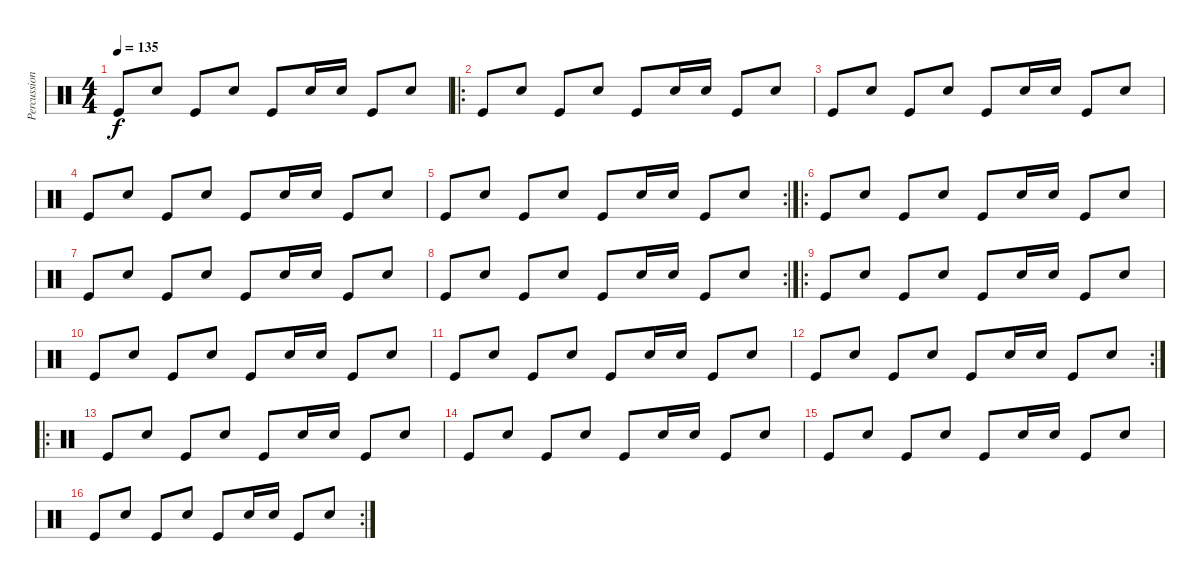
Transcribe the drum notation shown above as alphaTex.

\track ("Percussions" "Percussion") {instrument percussion}
\staff {score}
\articulation defaults
\ts (4 4)
\tempo 135
\clef neutral
\ks c "Kick (hit)".8{dy f} "Snare (hit) 2".8 "Kick (hit)".8 "Snare (hit) 2".8 "Kick (hit)".8 "Snare (hit) 2".16 "Snare (hit) 2".16 "Kick (hit)".8 "Snare (hit) 2".8
|
\ro "Kick (hit)".8 "Snare (hit) 2".8 "Kick (hit)".8 "Snare (hit) 2".8 "Kick (hit)".8 "Snare (hit) 2".16 "Snare (hit) 2".16 "Kick (hit)".8 "Snare (hit) 2".8
|
"Kick (hit)".8 "Snare (hit) 2".8 "Kick (hit)".8 "Snare (hit) 2".8 "Kick (hit)".8 "Snare (hit) 2".16 "Snare (hit) 2".16 "Kick (hit)".8 "Snare (hit) 2".8 |
"Kick (hit)".8 "Snare (hit) 2".8 "Kick (hit)".8 "Snare (hit) 2".8 "Kick (hit)".8 "Snare (hit) 2".16 "Snare (hit) 2".16 "Kick (hit)".8 "Snare (hit) 2".8 |
\rc 2 "Kick (hit)".8 "Snare (hit) 2".8 "Kick (hit)".8 "Snare (hit) 2".8 "Kick (hit)".8 "Snare (hit) 2".16 "Snare (hit) 2".16 "Kick (hit)".8 "Snare (hit) 2".8
|
\ro "Kick (hit)".8 "Snare (hit) 2".8 "Kick (hit)".8 "Snare (hit) 2".8 "Kick (hit)".8 "Snare (hit) 2".16 "Snare (hit) 2".16 "Kick (hit)".8 "Snare (hit) 2".8
|
"Kick (hit)".8 "Snare (hit) 2".8 "Kick (hit)".8 "Snare (hit) 2".8 "Kick (hit)".8 "Snare (hit) 2".16 "Snare (hit) 2".16 "Kick (hit)".8 "Snare (hit) 2".8 |
\rc 2 "Kick (hit)".8 "Snare (hit) 2".8 "Kick (hit)".8 "Snare (hit) 2".8 "Kick (hit)".8 "Snare (hit) 2".16 "Snare (hit) 2".16 "Kick (hit)".8 "Snare (hit) 2".8
|
\ro "Kick (hit)".8 "Snare (hit) 2".8 "Kick (hit)".8 "Snare (hit) 2".8 "Kick (hit)".8 "Snare (hit) 2".16 "Snare (hit) 2".16 "Kick (hit)".8 "Snare (hit) 2".8
|
"Kick (hit)".8 "Snare (hit) 2".8 "Kick (hit)".8 "Snare (hit) 2".8 "Kick (hit)".8 "Snare (hit) 2".16 "Snare (hit) 2".16 "Kick (hit)".8 "Snare (hit) 2".8 |
"Kick (hit)".8 "Snare (hit) 2".8 "Kick (hit)".8 "Snare (hit) 2".8 "Kick (hit)".8 "Snare (hit) 2".16 "Snare (hit) 2".16 "Kick (hit)".8 "Snare (hit) 2".8 |
\rc 2 "Kick (hit)".8 "Snare (hit) 2".8 "Kick (hit)".8 "Snare (hit) 2".8 "Kick (hit)".8 "Snare (hit) 2".16 "Snare (hit) 2".16 "Kick (hit)".8 "Snare (hit) 2".8
|
\ro "Kick (hit)".8 "Snare (hit) 2".8 "Kick (hit)".8 "Snare (hit) 2".8 "Kick (hit)".8 "Snare (hit) 2".16 "Snare (hit) 2".16 "Kick (hit)".8 "Snare (hit) 2".8
|
"Kick (hit)".8 "Snare (hit) 2".8 "Kick (hit)".8 "Snare (hit) 2".8 "Kick (hit)".8 "Snare (hit) 2".16 "Snare (hit) 2".16 "Kick (hit)".8 "Snare (hit) 2".8 |
"Kick (hit)".8 "Snare (hit) 2".8 "Kick (hit)".8 "Snare (hit) 2".8 "Kick (hit)".8 "Snare (hit) 2".16 "Snare (hit) 2".16 "Kick (hit)".8 "Snare (hit) 2".8 |
\rc 2 "Kick (hit)".8 "Snare (hit) 2".8 "Kick (hit)".8 "Snare (hit) 2".8 "Kick (hit)".8 "Snare (hit) 2".16 "Snare (hit) 2".16 "Kick (hit)".8 "Snare (hit) 2".8
